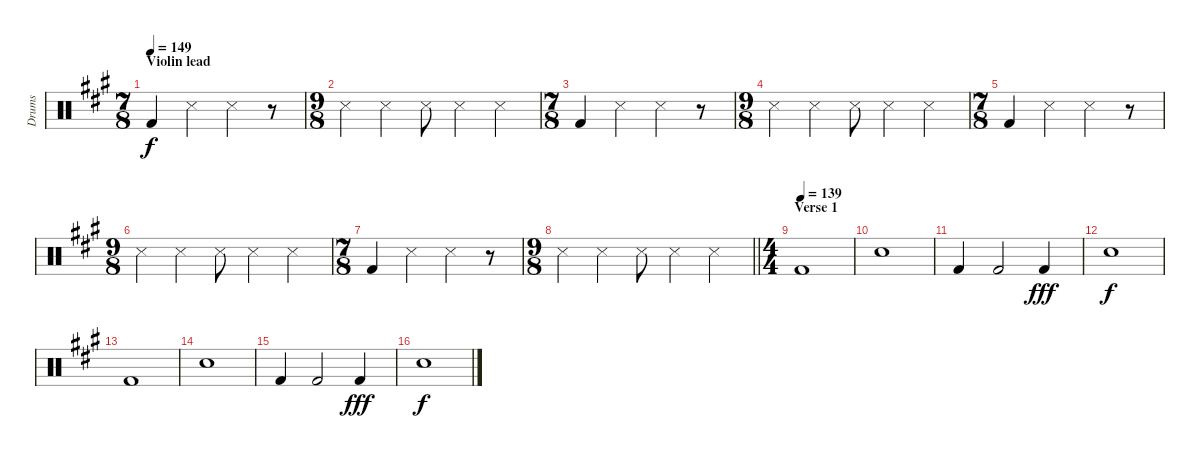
\track ("Drums" "Drums") {instrument percussion}
\staff {score}
\articulation defaults
\ts (7 8)
\section ("" "Violin lead")
\tempo 149
\clef neutral
\ks a "Kick (hit) 2".4{dy f} "Snare (side stick) 3".4 "Snare (side stick) 3".4
r.8 |
\ts (9 8)
"Snare (side stick) 3".4 "Snare (side stick) 3".4 "Snare (side stick) 3".8 "Snare (side stick) 3".4 "Snare (side stick) 3".4 |
\ts (7 8)
"Kick (hit) 2".4 "Snare (side stick) 3".4 "Snare (side stick) 3".4 r.8 |
\ts (9 8)
"Snare (side stick) 3".4 "Snare (side stick) 3".4 "Snare (side stick) 3".8 "Snare (side stick) 3".4 "Snare (side stick) 3".4 |
\ts (7 8)
"Kick (hit) 2".4 "Snare (side stick) 3".4 "Snare (side stick) 3".4 r.8 |
\ts (9 8)
"Snare (side stick) 3".4 "Snare (side stick) 3".4 "Snare (side stick) 3".8 "Snare (side stick) 3".4 "Snare (side stick) 3".4 |
\ts (7 8)
"Kick (hit) 2".4 "Snare (side stick) 3".4 "Snare (side stick) 3".4 r.8 |
\ts (9 8)
\barLineRight lightlight "Snare (side stick) 3".4 "Snare (side stick) 3".4 "Snare (side stick) 3".8 "Snare (side stick) 3".4 "Snare (side stick) 3".4
|
\ts (4 4)
\section ("" "Verse 1")
\tempo (139)
"Kick (hit) 2".1 |
"Electric Snare (hit)".1 |
"Kick (hit) 2".4 "Kick (hit) 2".2 "Kick (hit) 2".4{dy fff} |
"Electric Snare (hit)".1{dy f} |
"Kick (hit) 2".1 |
"Electric Snare (hit)".1 |
"Kick (hit) 2".4 "Kick (hit) 2".2 "Kick (hit) 2".4{dy fff} |
"Electric Snare (hit)".1{dy f}
